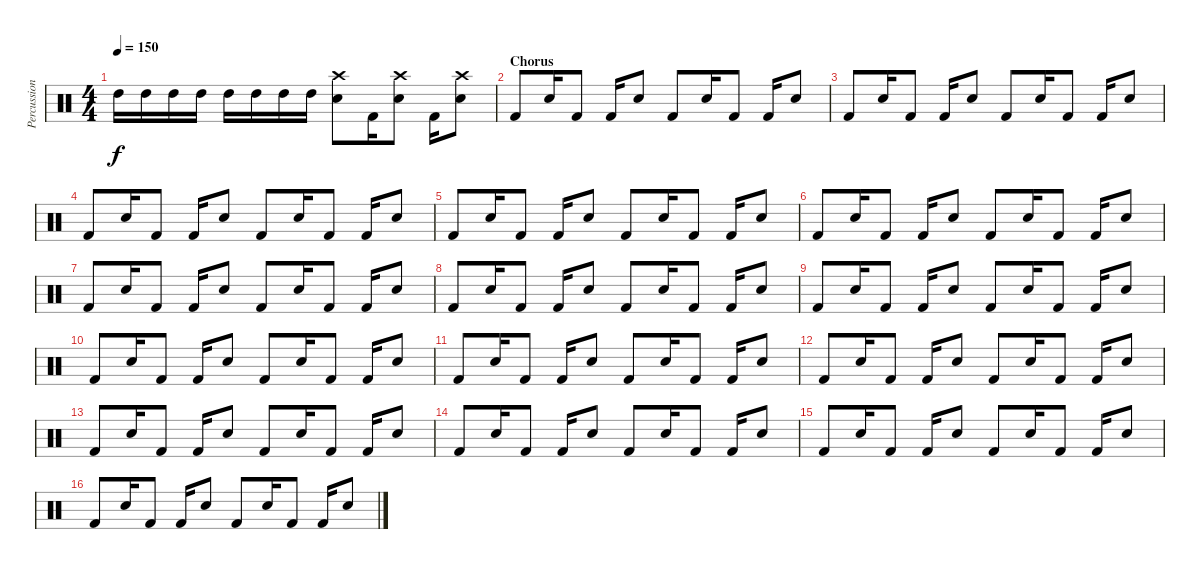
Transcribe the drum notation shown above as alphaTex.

\track ("Percussion" "Percussion") {instrument percussion}
\staff {score}
\articulation defaults
\ts (4 4)
\tempo 150
\clef neutral
\ks c "High Tom (hit)".16{dy f} "High Tom (hit)".16 "High Tom (hit)".16 "High Tom (hit)".16 "High Tom (hit)".16 "High Tom (hit)".16 "High Tom (hit)".16 "High Tom (hit)".16
("Crash high (hit)" "Snare (hit) 2").8 "Kick (hit) 2".16 ("Crash high (hit)" "Snare (hit) 2").8 "Kick (hit) 2".16 ("Crash high (hit)" "Snare (hit) 2").8 |
\section ("" "Chorus")
"Kick (hit) 2".8 "Snare (hit) 2".16 "Kick (hit) 2".8 "Kick (hit) 2".16 "Snare (hit) 2".8 "Kick (hit) 2".8 "Snare (hit) 2".16 "Kick (hit) 2".8 "Kick (hit) 2".16 "Snare (hit) 2".8 |
"Kick (hit) 2".8 "Snare (hit) 2".16 "Kick (hit) 2".8 "Kick (hit) 2".16 "Snare (hit) 2".8 "Kick (hit) 2".8 "Snare (hit) 2".16 "Kick (hit) 2".8 "Kick (hit) 2".16 "Snare (hit) 2".8 |
"Kick (hit) 2".8 "Snare (hit) 2".16 "Kick (hit) 2".8 "Kick (hit) 2".16 "Snare (hit) 2".8 "Kick (hit) 2".8 "Snare (hit) 2".16 "Kick (hit) 2".8 "Kick (hit) 2".16 "Snare (hit) 2".8 |
"Kick (hit) 2".8 "Snare (hit) 2".16 "Kick (hit) 2".8 "Kick (hit) 2".16 "Snare (hit) 2".8 "Kick (hit) 2".8 "Snare (hit) 2".16 "Kick (hit) 2".8 "Kick (hit) 2".16 "Snare (hit) 2".8 |
"Kick (hit) 2".8 "Snare (hit) 2".16 "Kick (hit) 2".8 "Kick (hit) 2".16 "Snare (hit) 2".8 "Kick (hit) 2".8 "Snare (hit) 2".16 "Kick (hit) 2".8 "Kick (hit) 2".16 "Snare (hit) 2".8 |
"Kick (hit) 2".8 "Snare (hit) 2".16 "Kick (hit) 2".8 "Kick (hit) 2".16 "Snare (hit) 2".8 "Kick (hit) 2".8 "Snare (hit) 2".16 "Kick (hit) 2".8 "Kick (hit) 2".16 "Snare (hit) 2".8 |
"Kick (hit) 2".8 "Snare (hit) 2".16 "Kick (hit) 2".8 "Kick (hit) 2".16 "Snare (hit) 2".8 "Kick (hit) 2".8 "Snare (hit) 2".16 "Kick (hit) 2".8 "Kick (hit) 2".16 "Snare (hit) 2".8 |
"Kick (hit) 2".8 "Snare (hit) 2".16 "Kick (hit) 2".8 "Kick (hit) 2".16 "Snare (hit) 2".8 "Kick (hit) 2".8 "Snare (hit) 2".16 "Kick (hit) 2".8 "Kick (hit) 2".16 "Snare (hit) 2".8 |
"Kick (hit) 2".8 "Snare (hit) 2".16 "Kick (hit) 2".8 "Kick (hit) 2".16 "Snare (hit) 2".8 "Kick (hit) 2".8 "Snare (hit) 2".16 "Kick (hit) 2".8 "Kick (hit) 2".16 "Snare (hit) 2".8 |
"Kick (hit) 2".8 "Snare (hit) 2".16 "Kick (hit) 2".8 "Kick (hit) 2".16 "Snare (hit) 2".8 "Kick (hit) 2".8 "Snare (hit) 2".16 "Kick (hit) 2".8 "Kick (hit) 2".16 "Snare (hit) 2".8 |
"Kick (hit) 2".8 "Snare (hit) 2".16 "Kick (hit) 2".8 "Kick (hit) 2".16 "Snare (hit) 2".8 "Kick (hit) 2".8 "Snare (hit) 2".16 "Kick (hit) 2".8 "Kick (hit) 2".16 "Snare (hit) 2".8 |
"Kick (hit) 2".8 "Snare (hit) 2".16 "Kick (hit) 2".8 "Kick (hit) 2".16 "Snare (hit) 2".8 "Kick (hit) 2".8 "Snare (hit) 2".16 "Kick (hit) 2".8 "Kick (hit) 2".16 "Snare (hit) 2".8 |
"Kick (hit) 2".8 "Snare (hit) 2".16 "Kick (hit) 2".8 "Kick (hit) 2".16 "Snare (hit) 2".8 "Kick (hit) 2".8 "Snare (hit) 2".16 "Kick (hit) 2".8 "Kick (hit) 2".16 "Snare (hit) 2".8 |
"Kick (hit) 2".8 "Snare (hit) 2".16 "Kick (hit) 2".8 "Kick (hit) 2".16 "Snare (hit) 2".8 "Kick (hit) 2".8 "Snare (hit) 2".16 "Kick (hit) 2".8 "Kick (hit) 2".16 "Snare (hit) 2".8 |
"Kick (hit) 2".8 "Snare (hit) 2".16 "Kick (hit) 2".8 "Kick (hit) 2".16 "Snare (hit) 2".8 "Kick (hit) 2".8 "Snare (hit) 2".16 "Kick (hit) 2".8 "Kick (hit) 2".16 "Snare (hit) 2".8
